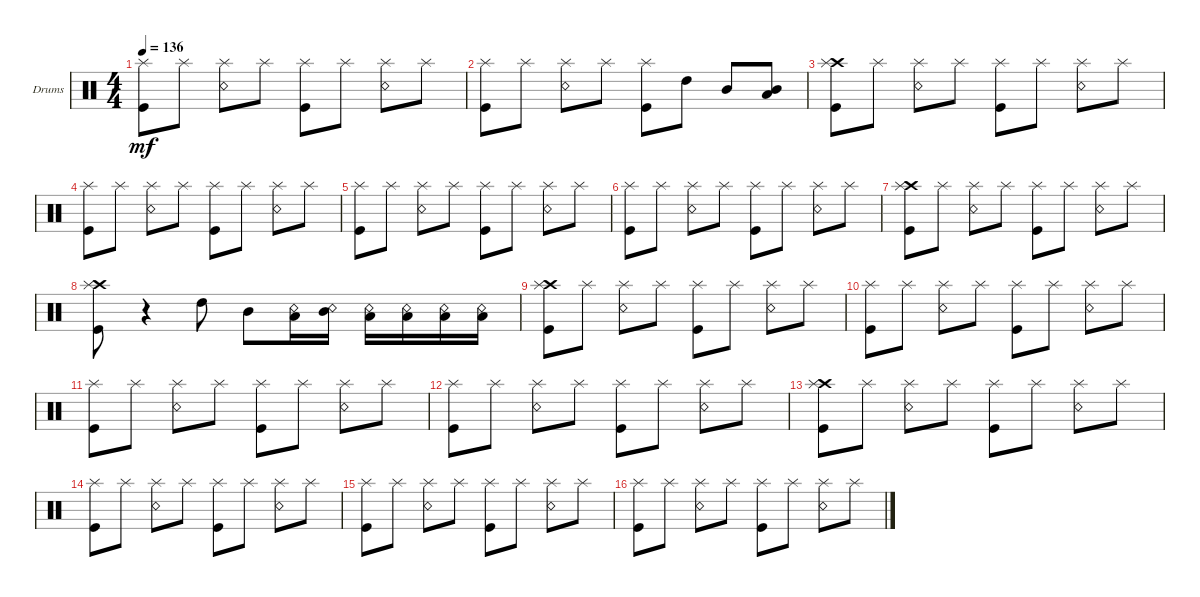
\defaultSystemsLayout 4
\bracketExtendMode groupsimilarinstruments
\firstSystemTrackNameOrientation horizontal
\otherSystemsTrackNameOrientation horizontal
\track ("Нюта" "Drums") {instrument percussion}
\staff {score}
\articulation defaults
\ts (4 4)
\tempo 136
\clef neutral
\ks c
("Kick (hit)" "Splash (hit)").8{dy mf} "Splash (hit)".8 ("Snare (rim shot)" "Splash (hit)").8 "Splash (hit)".8 ("Kick (hit)" "Splash (hit)").8 "Splash (hit)".8 ("Snare (rim shot)" "Splash (hit)").8 "Splash (hit)".8 |
("Kick (hit)" "Splash (hit)").8 "Splash (hit)".8 ("Snare (rim shot)" "Splash (hit)").8 "Splash (hit)".8 ("Kick (hit)" "Splash (hit)").8 "High Tom (hit)".8 "Mid Tom (hit)".8 ("Mid Tom (hit)" "Low Tom (hit)").8 |
("Crash high (hit)" "Kick (hit)" "Splash (hit)").8 "Splash (hit)".8 ("Snare (rim shot)" "Splash (hit)").8 "Splash (hit)".8 ("Kick (hit)" "Splash (hit)").8 "Splash (hit)".8 ("Snare (rim shot)" "Splash (hit)").8 "Splash (hit)".8 |
("Kick (hit)" "Splash (hit)").8 "Splash (hit)".8 ("Snare (rim shot)" "Splash (hit)").8 "Splash (hit)".8 ("Kick (hit)" "Splash (hit)").8 "Splash (hit)".8 ("Snare (rim shot)" "Splash (hit)").8 "Splash (hit)".8 |
("Kick (hit)" "Splash (hit)").8 "Splash (hit)".8 ("Snare (rim shot)" "Splash (hit)").8 "Splash (hit)".8 ("Kick (hit)" "Splash (hit)").8 "Splash (hit)".8 ("Snare (rim shot)" "Splash (hit)").8 "Splash (hit)".8 |
("Kick (hit)" "Splash (hit)").8 "Splash (hit)".8 ("Snare (rim shot)" "Splash (hit)").8 "Splash (hit)".8 ("Kick (hit)" "Splash (hit)").8 "Splash (hit)".8 ("Snare (rim shot)" "Splash (hit)").8 "Splash (hit)".8 |
("Crash high (hit)" "Kick (hit)" "Splash (hit)").8 "Splash (hit)".8 ("Snare (rim shot)" "Splash (hit)").8 "Splash (hit)".8 ("Kick (hit)" "Splash (hit)").8 "Splash (hit)".8 ("Snare (rim shot)" "Splash (hit)").8 "Splash (hit)".8 |
("Crash high (hit)" "Kick (hit)" "Splash (hit)").8 r.4 "High Tom (hit)".8 "Mid Tom (hit)".8 ("Low Tom (hit)" "Snare (rim shot)").16 ("Mid Tom (hit)" "Snare (rim shot)").16 ("Low Tom (hit)" "Snare (rim shot)").16 ("Low Tom (hit)" "Snare (rim shot)").16 ("Low Tom (hit)" "Snare (rim shot)").16 ("Low Tom (hit)" "Snare (rim shot)").16 |
("Crash high (hit)" "Kick (hit)" "Splash (hit)").8 "Splash (hit)".8 ("Snare (rim shot)" "Splash (hit)").8 "Splash (hit)".8 ("Kick (hit)" "Splash (hit)").8 "Splash (hit)".8 ("Snare (rim shot)" "Splash (hit)").8 "Splash (hit)".8 |
("Kick (hit)" "Splash (hit)").8 "Splash (hit)".8 ("Snare (rim shot)" "Splash (hit)").8 "Splash (hit)".8 ("Kick (hit)" "Splash (hit)").8 "Splash (hit)".8 ("Snare (rim shot)" "Splash (hit)").8 "Splash (hit)".8 |
("Kick (hit)" "Splash (hit)").8 "Splash (hit)".8 ("Snare (rim shot)" "Splash (hit)").8 "Splash (hit)".8 ("Kick (hit)" "Splash (hit)").8 "Splash (hit)".8 ("Snare (rim shot)" "Splash (hit)").8 "Splash (hit)".8 |
("Kick (hit)" "Splash (hit)").8 "Splash (hit)".8 ("Snare (rim shot)" "Splash (hit)").8 "Splash (hit)".8 ("Kick (hit)" "Splash (hit)").8 "Splash (hit)".8 ("Snare (rim shot)" "Splash (hit)").8 "Splash (hit)".8 |
("Crash high (hit)" "Kick (hit)" "Splash (hit)").8 "Splash (hit)".8 ("Snare (rim shot)" "Splash (hit)").8 "Splash (hit)".8 ("Kick (hit)" "Splash (hit)").8 "Splash (hit)".8 ("Snare (rim shot)" "Splash (hit)").8 "Splash (hit)".8 |
("Kick (hit)" "Splash (hit)").8 "Splash (hit)".8 ("Snare (rim shot)" "Splash (hit)").8 "Splash (hit)".8 ("Kick (hit)" "Splash (hit)").8 "Splash (hit)".8 ("Snare (rim shot)" "Splash (hit)").8 "Splash (hit)".8 |
("Kick (hit)" "Splash (hit)").8 "Splash (hit)".8 ("Snare (rim shot)" "Splash (hit)").8 "Splash (hit)".8 ("Kick (hit)" "Splash (hit)").8 "Splash (hit)".8 ("Snare (rim shot)" "Splash (hit)").8 "Splash (hit)".8 |
("Kick (hit)" "Splash (hit)").8 "Splash (hit)".8 ("Snare (rim shot)" "Splash (hit)").8 "Splash (hit)".8 ("Kick (hit)" "Splash (hit)").8 "Splash (hit)".8 ("Snare (rim shot)" "Splash (hit)").8 "Splash (hit)".8
